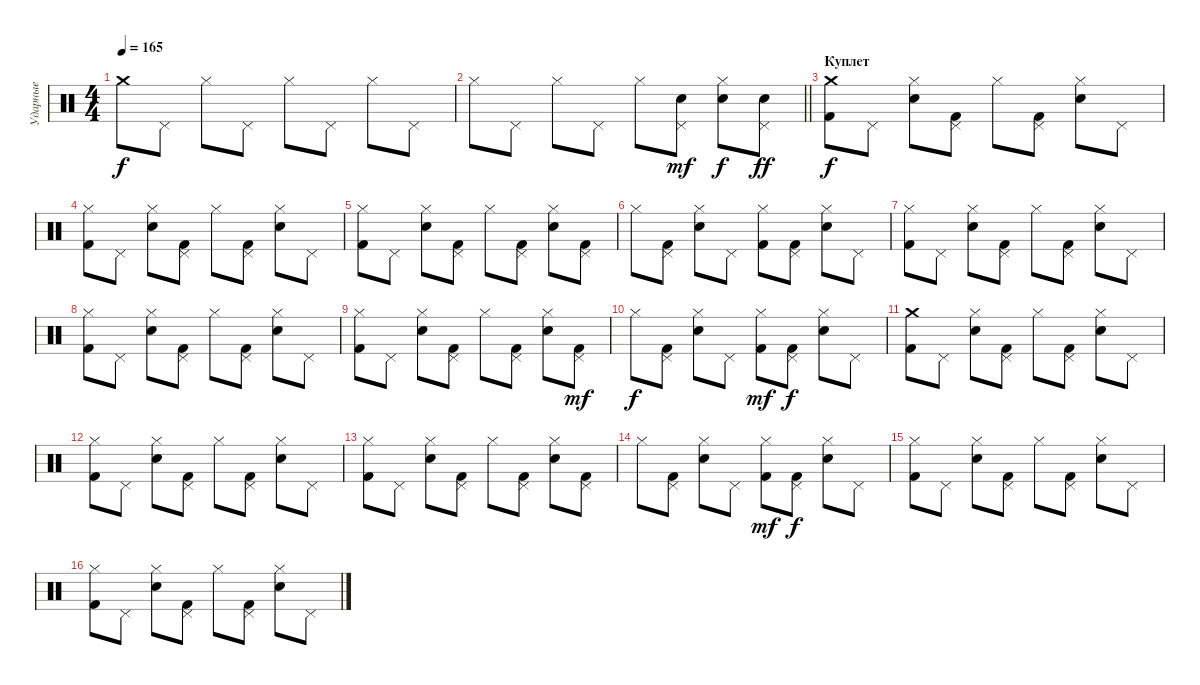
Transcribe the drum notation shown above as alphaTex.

\track ("Ударные" "Ударные") {instrument percussion}
\staff {score}
\articulation defaults
\ts (4 4)
\tempo 165
\clef neutral
\ks c "Crash medium (hit)".8{dy f} "Pedal Hi-Hat (hit)".8 "Hi-Hat (closed)".8 "Pedal Hi-Hat (hit)".8 "Hi-Hat (closed)".8 "Pedal Hi-Hat (hit)".8 "Hi-Hat (closed)".8 "Pedal Hi-Hat (hit)".8
|
\barLineRight lightlight "Hi-Hat (closed)".8 "Pedal Hi-Hat (hit)".8 "Hi-Hat (closed)".8 "Pedal Hi-Hat (hit)".8 "Hi-Hat (closed)".8
("Pedal Hi-Hat (hit)" "Snare (hit) 2").8{dy mf} ("Hi-Hat (closed)" "Snare (hit) 2").8{dy f} ("Pedal Hi-Hat (hit)" "Snare (hit) 2").8{dy ff} |
\section ("" "Куплет")
("Crash medium (hit)" "Kick (hit) 2").8{dy f} "Pedal Hi-Hat (hit)".8 ("Hi-Hat (closed)" "Snare (hit) 2").8 ("Pedal Hi-Hat (hit)" "Kick (hit) 2").8 "Hi-Hat (closed)".8 ("Pedal Hi-Hat (hit)" "Kick (hit) 2").8 ("Hi-Hat (closed)" "Snare (hit) 2").8 "Pedal Hi-Hat (hit)".8 |
("Hi-Hat (closed)" "Kick (hit) 2").8 "Pedal Hi-Hat (hit)".8 ("Hi-Hat (closed)" "Snare (hit) 2").8 ("Pedal Hi-Hat (hit)" "Kick (hit) 2").8 "Hi-Hat (closed)".8 ("Pedal Hi-Hat (hit)" "Kick (hit) 2").8 ("Hi-Hat (closed)" "Snare (hit) 2").8 "Pedal Hi-Hat (hit)".8 |
("Hi-Hat (closed)" "Kick (hit) 2").8 "Pedal Hi-Hat (hit)".8 ("Hi-Hat (closed)" "Snare (hit) 2").8 ("Pedal Hi-Hat (hit)" "Kick (hit) 2").8 "Hi-Hat (closed)".8 ("Pedal Hi-Hat (hit)" "Kick (hit) 2").8 ("Hi-Hat (closed)" "Snare (hit) 2").8 ("Pedal Hi-Hat (hit)" "Kick (hit) 2").8 |
"Hi-Hat (closed)".8 ("Pedal Hi-Hat (hit)" "Kick (hit) 2").8 ("Hi-Hat (closed)" "Snare (hit) 2").8 "Pedal Hi-Hat (hit)".8 ("Hi-Hat (closed)" "Kick (hit) 2").8 ("Pedal Hi-Hat (hit)" "Kick (hit) 2").8 ("Hi-Hat (closed)" "Snare (hit) 2").8 "Pedal Hi-Hat (hit)".8 |
("Hi-Hat (closed)" "Kick (hit) 2").8 "Pedal Hi-Hat (hit)".8 ("Hi-Hat (closed)" "Snare (hit) 2").8 ("Pedal Hi-Hat (hit)" "Kick (hit) 2").8 "Hi-Hat (closed)".8 ("Pedal Hi-Hat (hit)" "Kick (hit) 2").8 ("Hi-Hat (closed)" "Snare (hit) 2").8 "Pedal Hi-Hat (hit)".8 |
("Hi-Hat (closed)" "Kick (hit) 2").8 "Pedal Hi-Hat (hit)".8 ("Hi-Hat (closed)" "Snare (hit) 2").8 ("Pedal Hi-Hat (hit)" "Kick (hit) 2").8 "Hi-Hat (closed)".8 ("Pedal Hi-Hat (hit)" "Kick (hit) 2").8 ("Hi-Hat (closed)" "Snare (hit) 2").8 "Pedal Hi-Hat (hit)".8 |
("Hi-Hat (closed)" "Kick (hit) 2").8 "Pedal Hi-Hat (hit)".8 ("Hi-Hat (closed)" "Snare (hit) 2").8 ("Pedal Hi-Hat (hit)" "Kick (hit) 2").8 "Hi-Hat (closed)".8 ("Pedal Hi-Hat (hit)" "Kick (hit) 2").8 ("Hi-Hat (closed)" "Snare (hit) 2").8 ("Pedal Hi-Hat (hit)" "Kick (hit) 2").8{dy mf} |
"Hi-Hat (closed)".8{dy f} ("Pedal Hi-Hat (hit)" "Kick (hit) 2").8 ("Hi-Hat (closed)" "Snare (hit) 2").8 "Pedal Hi-Hat (hit)".8 ("Hi-Hat (closed)" "Kick (hit) 2").8{dy mf} ("Pedal Hi-Hat (hit)" "Kick (hit) 2").8{dy f} ("Hi-Hat (closed)" "Snare (hit) 2").8 "Pedal Hi-Hat (hit)".8 |
("Crash medium (hit)" "Kick (hit) 2").8 "Pedal Hi-Hat (hit)".8 ("Hi-Hat (closed)" "Snare (hit) 2").8 ("Pedal Hi-Hat (hit)" "Kick (hit) 2").8 "Hi-Hat (closed)".8 ("Pedal Hi-Hat (hit)" "Kick (hit) 2").8 ("Hi-Hat (closed)" "Snare (hit) 2").8 "Pedal Hi-Hat (hit)".8 |
("Hi-Hat (closed)" "Kick (hit) 2").8 "Pedal Hi-Hat (hit)".8 ("Hi-Hat (closed)" "Snare (hit) 2").8 ("Pedal Hi-Hat (hit)" "Kick (hit) 2").8 "Hi-Hat (closed)".8 ("Pedal Hi-Hat (hit)" "Kick (hit) 2").8 ("Hi-Hat (closed)" "Snare (hit) 2").8 "Pedal Hi-Hat (hit)".8 |
("Hi-Hat (closed)" "Kick (hit) 2").8 "Pedal Hi-Hat (hit)".8 ("Hi-Hat (closed)" "Snare (hit) 2").8 ("Pedal Hi-Hat (hit)" "Kick (hit) 2").8 "Hi-Hat (closed)".8 ("Pedal Hi-Hat (hit)" "Kick (hit) 2").8 ("Hi-Hat (closed)" "Snare (hit) 2").8 ("Pedal Hi-Hat (hit)" "Kick (hit) 2").8 |
"Hi-Hat (closed)".8 ("Pedal Hi-Hat (hit)" "Kick (hit) 2").8 ("Hi-Hat (closed)" "Snare (hit) 2").8 "Pedal Hi-Hat (hit)".8 ("Hi-Hat (closed)" "Kick (hit) 2").8{dy mf} ("Pedal Hi-Hat (hit)" "Kick (hit) 2").8{dy f} ("Hi-Hat (closed)" "Snare (hit) 2").8 "Pedal Hi-Hat (hit)".8 |
("Hi-Hat (closed)" "Kick (hit) 2").8 "Pedal Hi-Hat (hit)".8 ("Hi-Hat (closed)" "Snare (hit) 2").8 ("Pedal Hi-Hat (hit)" "Kick (hit) 2").8 "Hi-Hat (closed)".8 ("Pedal Hi-Hat (hit)" "Kick (hit) 2").8 ("Hi-Hat (closed)" "Snare (hit) 2").8 "Pedal Hi-Hat (hit)".8 |
("Hi-Hat (closed)" "Kick (hit) 2").8 "Pedal Hi-Hat (hit)".8 ("Hi-Hat (closed)" "Snare (hit) 2").8 ("Pedal Hi-Hat (hit)" "Kick (hit) 2").8 "Hi-Hat (closed)".8 ("Pedal Hi-Hat (hit)" "Kick (hit) 2").8 ("Hi-Hat (closed)" "Snare (hit) 2").8 "Pedal Hi-Hat (hit)".8
